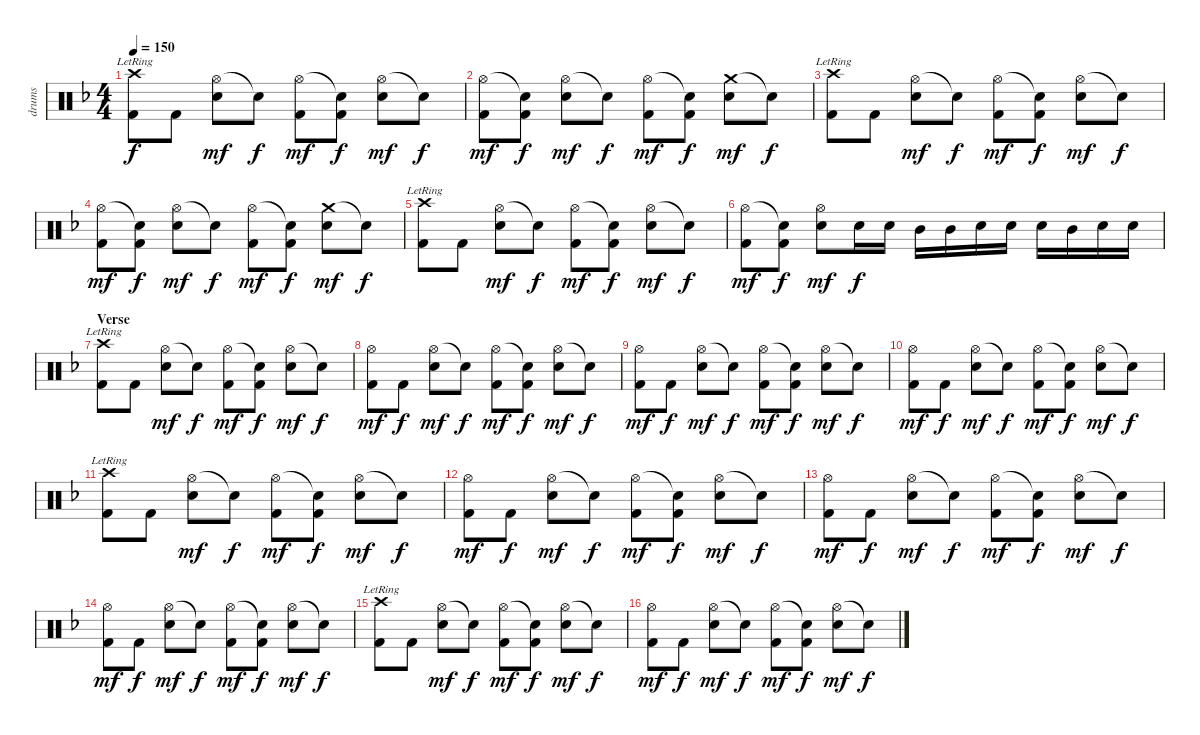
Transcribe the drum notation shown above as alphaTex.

\track ("drums" "drums") {instrument percussion}
\staff {score}
\articulation defaults
\ts (4 4)
\tempo 150
\clef neutral
\ks dminor
("Crash high (hit)"{lr} "Kick (hit) 2").8{dy f} "Kick (hit) 2".8 ("Hi-Hat (open)" "Electric Snare (hit)").8{dy mf} "Snare (hit)"{t}.8{dy f} ("Hi-Hat (open)" "Kick (hit) 2").8{dy mf} ("Snare (hit)"{t} "Kick (hit) 2").8{dy f} ("Hi-Hat (open)" "Electric Snare (hit)").8{dy mf} "Snare (hit)"{t}.8{dy f} |
("Hi-Hat (open)" "Kick (hit) 2").8{dy mf} ("Snare (hit)"{t} "Kick (hit) 2").8{dy f} ("Hi-Hat (open)" "Electric Snare (hit)").8{dy mf} "Snare (hit)"{t}.8{dy f} ("Hi-Hat (open)" "Kick (hit) 2").8{dy mf} ("Snare (hit)"{t} "Kick (hit) 2").8{dy f} ("Crash medium (hit)" "Electric Snare (hit)").8{dy mf} "Snare (hit)"{t}.8{dy f} |
("Crash high (hit)"{lr} "Kick (hit) 2").8 "Kick (hit) 2".8 ("Hi-Hat (open)" "Electric Snare (hit)").8{dy mf} "Snare (hit)"{t}.8{dy f} ("Hi-Hat (open)" "Kick (hit) 2").8{dy mf} ("Snare (hit)"{t} "Kick (hit) 2").8{dy f} ("Hi-Hat (open)" "Electric Snare (hit)").8{dy mf} "Snare (hit)"{t}.8{dy f} |
("Hi-Hat (open)" "Kick (hit) 2").8{dy mf} ("Snare (hit)"{t} "Kick (hit) 2").8{dy f} ("Hi-Hat (open)" "Electric Snare (hit)").8{dy mf} "Snare (hit)"{t}.8{dy f} ("Hi-Hat (open)" "Kick (hit) 2").8{dy mf} ("Snare (hit)"{t} "Kick (hit) 2").8{dy f} ("Crash medium (hit)" "Electric Snare (hit)").8{dy mf} "Snare (hit)"{t}.8{dy f} |
("Crash high (hit)"{lr} "Kick (hit) 2").8 "Kick (hit) 2".8 ("Hi-Hat (open)" "Electric Snare (hit)").8{dy mf} "Snare (hit)"{t}.8{dy f} ("Hi-Hat (open)" "Kick (hit) 2").8{dy mf} ("Snare (hit)"{t} "Kick (hit) 2").8{dy f} ("Hi-Hat (open)" "Electric Snare (hit)").8{dy mf} "Snare (hit)"{t}.8{dy f} |
("Hi-Hat (open)" "Kick (hit) 2").8{dy mf} ("Snare (hit)"{t} "Kick (hit) 2").8{dy f} ("Hi-Hat (open)" "Electric Snare (hit)").8{dy mf} "Electric Snare (hit)".16{dy f} "Electric Snare (hit)".16 "Mid Tom (hit)".16 "Mid Tom (hit)".16 "Electric Snare (hit)".16 "Electric Snare (hit)".16 "Electric Snare (hit)".16 "Mid Tom (hit)".16 "Electric Snare (hit)".16 "Electric Snare (hit)".16 |
\section ("" "Verse")
("Crash high (hit)"{lr} "Kick (hit) 2").8 "Kick (hit) 2".8 ("Hi-Hat (open)" "Electric Snare (hit)").8{dy mf} "Snare (hit)"{t}.8{dy f} ("Hi-Hat (open)" "Kick (hit) 2").8{dy mf} ("Snare (hit)"{t} "Kick (hit) 2").8{dy f} ("Hi-Hat (open)" "Electric Snare (hit)").8{dy mf} "Snare (hit)"{t}.8{dy f} |
("Hi-Hat (open)" "Kick (hit) 2").8{dy mf} "Kick (hit) 2".8{dy f} ("Hi-Hat (open)" "Electric Snare (hit)").8{dy mf} "Snare (hit)"{t}.8{dy f} ("Hi-Hat (open)" "Kick (hit) 2").8{dy mf} ("Snare (hit)"{t} "Kick (hit) 2").8{dy f} ("Hi-Hat (open)" "Electric Snare (hit)").8{dy mf} "Snare (hit)"{t}.8{dy f} |
("Hi-Hat (open)" "Kick (hit) 2").8{dy mf} "Kick (hit) 2".8{dy f} ("Hi-Hat (open)" "Electric Snare (hit)").8{dy mf} "Snare (hit)"{t}.8{dy f} ("Hi-Hat (open)" "Kick (hit) 2").8{dy mf} ("Snare (hit)"{t} "Kick (hit) 2").8{dy f} ("Hi-Hat (open)" "Electric Snare (hit)").8{dy mf} "Snare (hit)"{t}.8{dy f} |
("Hi-Hat (open)" "Kick (hit) 2").8{dy mf} "Kick (hit) 2".8{dy f} ("Hi-Hat (open)" "Electric Snare (hit)").8{dy mf} "Snare (hit)"{t}.8{dy f} ("Hi-Hat (open)" "Kick (hit) 2").8{dy mf} ("Snare (hit)"{t} "Kick (hit) 2").8{dy f} ("Hi-Hat (open)" "Electric Snare (hit)").8{dy mf} "Snare (hit)"{t}.8{dy f} |
("Crash high (hit)"{lr} "Kick (hit) 2").8 "Kick (hit) 2".8 ("Hi-Hat (open)" "Electric Snare (hit)").8{dy mf} "Snare (hit)"{t}.8{dy f} ("Hi-Hat (open)" "Kick (hit) 2").8{dy mf} ("Snare (hit)"{t} "Kick (hit) 2").8{dy f} ("Hi-Hat (open)" "Electric Snare (hit)").8{dy mf} "Snare (hit)"{t}.8{dy f} |
("Hi-Hat (open)" "Kick (hit) 2").8{dy mf} "Kick (hit) 2".8{dy f} ("Hi-Hat (open)" "Electric Snare (hit)").8{dy mf} "Snare (hit)"{t}.8{dy f} ("Hi-Hat (open)" "Kick (hit) 2").8{dy mf} ("Snare (hit)"{t} "Kick (hit) 2").8{dy f} ("Hi-Hat (open)" "Electric Snare (hit)").8{dy mf} "Snare (hit)"{t}.8{dy f} |
("Hi-Hat (open)" "Kick (hit) 2").8{dy mf} "Kick (hit) 2".8{dy f} ("Hi-Hat (open)" "Electric Snare (hit)").8{dy mf} "Snare (hit)"{t}.8{dy f} ("Hi-Hat (open)" "Kick (hit) 2").8{dy mf} ("Snare (hit)"{t} "Kick (hit) 2").8{dy f} ("Hi-Hat (open)" "Electric Snare (hit)").8{dy mf} "Snare (hit)"{t}.8{dy f} |
("Hi-Hat (open)" "Kick (hit) 2").8{dy mf} "Kick (hit) 2".8{dy f} ("Hi-Hat (open)" "Electric Snare (hit)").8{dy mf} "Snare (hit)"{t}.8{dy f} ("Hi-Hat (open)" "Kick (hit) 2").8{dy mf} ("Snare (hit)"{t} "Kick (hit) 2").8{dy f} ("Hi-Hat (open)" "Electric Snare (hit)").8{dy mf} "Snare (hit)"{t}.8{dy f} |
("Crash high (hit)"{lr} "Kick (hit) 2").8 "Kick (hit) 2".8 ("Hi-Hat (open)" "Electric Snare (hit)").8{dy mf} "Snare (hit)"{t}.8{dy f} ("Hi-Hat (open)" "Kick (hit) 2").8{dy mf} ("Snare (hit)"{t} "Kick (hit) 2").8{dy f} ("Hi-Hat (open)" "Electric Snare (hit)").8{dy mf} "Snare (hit)"{t}.8{dy f} |
("Hi-Hat (open)" "Kick (hit) 2").8{dy mf} "Kick (hit) 2".8{dy f} ("Hi-Hat (open)" "Electric Snare (hit)").8{dy mf} "Snare (hit)"{t}.8{dy f} ("Hi-Hat (open)" "Kick (hit) 2").8{dy mf} ("Snare (hit)"{t} "Kick (hit) 2").8{dy f} ("Hi-Hat (open)" "Electric Snare (hit)").8{dy mf} "Snare (hit)"{t}.8{dy f}
